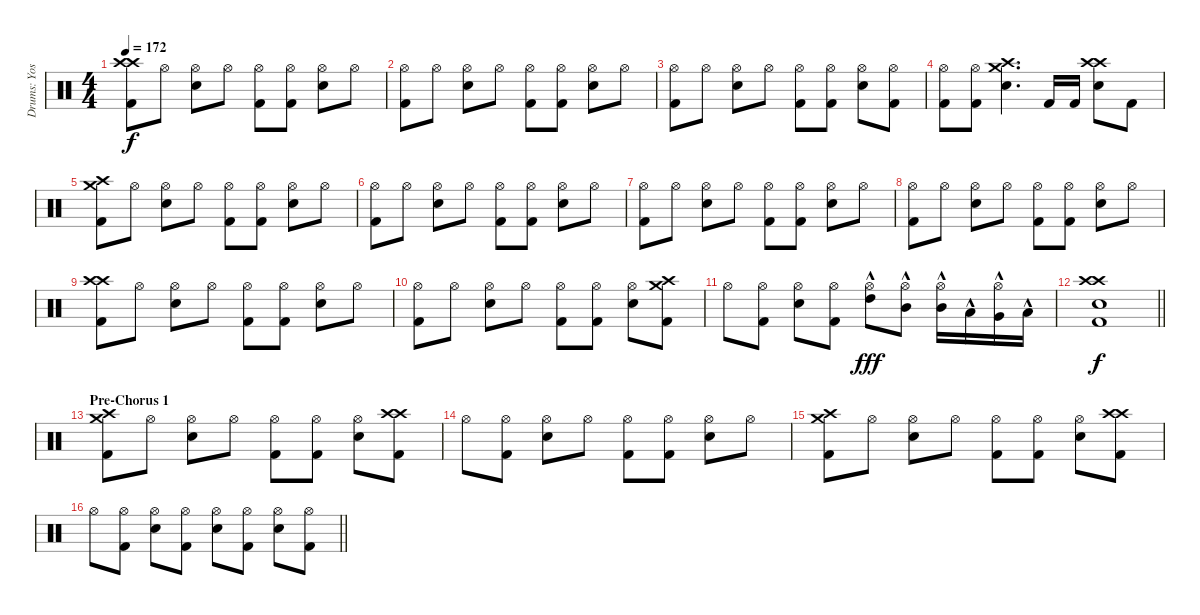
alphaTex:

\track ("Drums: Yoshiki" "Drums: Yos") {instrument percussion}
\staff {score}
\articulation defaults
\ts (4 4)
\tempo 172
\clef neutral
\ks c
("Crash high (hit)" "Crash high (hit)" "Kick (hit) 2").8{dy f} "Hi-Hat (open)".8 ("Hi-Hat (open)" "Snare (hit) 2").8 "Hi-Hat (open)".8 ("Hi-Hat (open)" "Kick (hit) 2").8 ("Hi-Hat (open)" "Kick (hit) 2").8 ("Hi-Hat (open)" "Snare (hit) 2").8 "Hi-Hat (open)".8 |
("Hi-Hat (open)" "Kick (hit) 2").8 "Hi-Hat (open)".8 ("Hi-Hat (open)" "Snare (hit) 2").8 "Hi-Hat (open)".8 ("Hi-Hat (open)" "Kick (hit) 2").8 ("Hi-Hat (open)" "Kick (hit) 2").8 ("Hi-Hat (open)" "Snare (hit) 2").8 "Hi-Hat (open)".8 |
("Hi-Hat (open)" "Kick (hit) 2").8 "Hi-Hat (open)".8 ("Hi-Hat (open)" "Snare (hit) 2").8 "Hi-Hat (open)".8 ("Hi-Hat (open)" "Kick (hit) 2").8 ("Hi-Hat (open)" "Kick (hit) 2").8 ("Hi-Hat (open)" "Snare (hit) 2").8 ("Hi-Hat (open)" "Kick (hit) 2").8 |
("Hi-Hat (open)" "Kick (hit) 2").8 ("Hi-Hat (open)" "Kick (hit) 2").8 ("Crash high (hit)" "Crash medium (hit)" "Snare (hit) 2").4{d} "Kick (hit) 2".16 "Kick (hit) 2".16 ("Crash high (hit)" "Crash high (hit)" "Snare (hit) 2").8 "Kick (hit) 2".8 |
("Crash high (hit)" "Crash medium (hit)" "Kick (hit) 2").8 "Hi-Hat (open)".8 ("Hi-Hat (open)" "Snare (hit) 2").8 "Hi-Hat (open)".8 ("Hi-Hat (open)" "Kick (hit) 2").8 ("Hi-Hat (open)" "Kick (hit) 2").8 ("Hi-Hat (open)" "Snare (hit) 2").8 "Hi-Hat (open)".8 |
("Hi-Hat (open)" "Kick (hit) 2").8 "Hi-Hat (open)".8 ("Hi-Hat (open)" "Snare (hit) 2").8 "Hi-Hat (open)".8 ("Hi-Hat (open)" "Kick (hit) 2").8 ("Hi-Hat (open)" "Kick (hit) 2").8 ("Hi-Hat (open)" "Snare (hit) 2").8 "Hi-Hat (open)".8 |
("Hi-Hat (open)" "Kick (hit) 2").8 "Hi-Hat (open)".8 ("Hi-Hat (open)" "Snare (hit) 2").8 "Hi-Hat (open)".8 ("Hi-Hat (open)" "Kick (hit) 2").8 ("Hi-Hat (open)" "Kick (hit) 2").8 ("Hi-Hat (open)" "Snare (hit) 2").8 "Hi-Hat (open)".8 |
("Hi-Hat (open)" "Kick (hit) 2").8 "Hi-Hat (open)".8 ("Hi-Hat (open)" "Snare (hit) 2").8 "Hi-Hat (open)".8 ("Hi-Hat (open)" "Kick (hit) 2").8 ("Hi-Hat (open)" "Kick (hit) 2").8 ("Hi-Hat (open)" "Snare (hit) 2").8 "Hi-Hat (open)".8 |
("Crash high (hit)" "Crash high (hit)" "Kick (hit) 2").8 "Hi-Hat (open)".8 ("Hi-Hat (open)" "Snare (hit) 2").8 "Hi-Hat (open)".8 ("Hi-Hat (open)" "Kick (hit) 2").8 ("Hi-Hat (open)" "Kick (hit) 2").8 ("Hi-Hat (open)" "Snare (hit) 2").8 "Hi-Hat (open)".8 |
("Hi-Hat (open)" "Kick (hit) 2").8 "Hi-Hat (open)".8 ("Hi-Hat (open)" "Snare (hit) 2").8 "Hi-Hat (open)".8 ("Hi-Hat (open)" "Kick (hit) 2").8 ("Hi-Hat (open)" "Kick (hit) 2").8 ("Hi-Hat (open)" "Snare (hit) 2").8 ("Crash high (hit)" "Crash medium (hit)" "Kick (hit) 2").8 |
"Hi-Hat (open)".8 ("Hi-Hat (open)" "Kick (hit) 2").8 ("Hi-Hat (open)" "Snare (hit) 2").8 ("Hi-Hat (open)" "Kick (hit) 2").8 ("Hi-Hat (open)" "High Tom (hit)"{hac}).8{dy fff} ("Hi-Hat (open)" "Mid Tom (hit)"{hac}).8 ("Hi-Hat (open)" "Mid Tom (hit)"{hac}).16 "Low Tom (hit)"{hac}.16 ("Hi-Hat (open)" "Very Low Tom (hit)"{hac}).16 "Low Floor Tom (hit)"{hac}.16 |
\barLineRight lightlight
("Crash high (hit)" "Crash high (hit)" "Snare (hit) 2" "Kick (hit) 2").1{dy f volume 0} |
\section ("" "Pre-Chorus 1")
("Crash high (hit)" "Crash medium (hit)" "Kick (hit) 2").8{volume 11} "Hi-Hat (open)".8 ("Hi-Hat (open)" "Snare (hit) 2").8 "Hi-Hat (open)".8 ("Hi-Hat (open)" "Kick (hit) 2").8 ("Hi-Hat (open)" "Kick (hit) 2").8 ("Hi-Hat (open)" "Snare (hit) 2").8 ("Crash high (hit)" "Crash high (hit)" "Kick (hit) 2").8 |
"Hi-Hat (open)".8 ("Hi-Hat (open)" "Kick (hit) 2").8 ("Hi-Hat (open)" "Snare (hit) 2").8 "Hi-Hat (open)".8 ("Hi-Hat (open)" "Kick (hit) 2").8 ("Hi-Hat (open)" "Kick (hit) 2").8 ("Hi-Hat (open)" "Snare (hit) 2").8 "Hi-Hat (open)".8 |
("Crash high (hit)" "Crash medium (hit)" "Kick (hit) 2").8 "Hi-Hat (open)".8 ("Hi-Hat (open)" "Snare (hit) 2").8 "Hi-Hat (open)".8 ("Hi-Hat (open)" "Kick (hit) 2").8 ("Hi-Hat (open)" "Kick (hit) 2").8 ("Hi-Hat (open)" "Snare (hit) 2").8 ("Crash high (hit)" "Crash high (hit)" "Kick (hit) 2").8 |
\barLineRight lightlight "Hi-Hat (open)".8
("Hi-Hat (open)" "Kick (hit) 2").8 ("Hi-Hat (open)" "Snare (hit) 2").8 ("Hi-Hat (open)" "Kick (hit) 2").8 ("Hi-Hat (open)" "Snare (hit) 2").8 ("Hi-Hat (open)" "Kick (hit) 2").8 ("Hi-Hat (open)" "Snare (hit) 2").8 ("Hi-Hat (open)" "Kick (hit) 2").8
